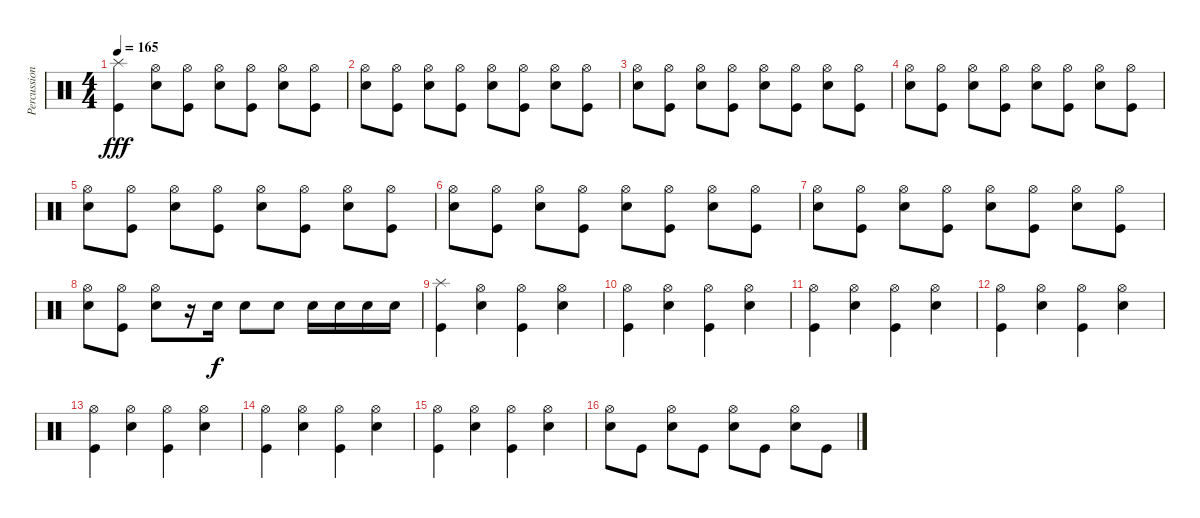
\track ("Percussion" "Percussion") {instrument percussion}
\staff {score}
\articulation defaults
\ts (4 4)
\tempo 165
\clef neutral
\ks c
("Splash (hit)" "Kick (hit)").4{dy fff} ("Hi-Hat (open)" "Snare (hit) 2").8 ("Hi-Hat (open)" "Kick (hit)").8 ("Hi-Hat (open)" "Snare (hit) 2").8 ("Hi-Hat (open)" "Kick (hit)").8 ("Hi-Hat (open)" "Snare (hit) 2").8 ("Hi-Hat (open)" "Kick (hit)").8 |
("Hi-Hat (open)" "Snare (hit) 2").8 ("Hi-Hat (open)" "Kick (hit)").8 ("Hi-Hat (open)" "Snare (hit) 2").8 ("Hi-Hat (open)" "Kick (hit)").8 ("Hi-Hat (open)" "Snare (hit) 2").8 ("Hi-Hat (open)" "Kick (hit)").8 ("Hi-Hat (open)" "Snare (hit) 2").8 ("Hi-Hat (open)" "Kick (hit)").8 |
("Hi-Hat (open)" "Snare (hit) 2").8 ("Hi-Hat (open)" "Kick (hit)").8 ("Hi-Hat (open)" "Snare (hit) 2").8 ("Hi-Hat (open)" "Kick (hit)").8 ("Hi-Hat (open)" "Snare (hit) 2").8 ("Hi-Hat (open)" "Kick (hit)").8 ("Hi-Hat (open)" "Snare (hit) 2").8 ("Hi-Hat (open)" "Kick (hit)").8 |
("Hi-Hat (open)" "Snare (hit) 2").8 ("Hi-Hat (open)" "Kick (hit)").8 ("Hi-Hat (open)" "Snare (hit) 2").8 ("Hi-Hat (open)" "Kick (hit)").8 ("Hi-Hat (open)" "Snare (hit) 2").8 ("Hi-Hat (open)" "Kick (hit)").8 ("Hi-Hat (open)" "Snare (hit) 2").8 ("Hi-Hat (open)" "Kick (hit)").8 |
("Hi-Hat (open)" "Snare (hit) 2").8 ("Hi-Hat (open)" "Kick (hit)").8 ("Hi-Hat (open)" "Snare (hit) 2").8 ("Hi-Hat (open)" "Kick (hit)").8 ("Hi-Hat (open)" "Snare (hit) 2").8 ("Hi-Hat (open)" "Kick (hit)").8 ("Hi-Hat (open)" "Snare (hit) 2").8 ("Hi-Hat (open)" "Kick (hit)").8 |
("Hi-Hat (open)" "Snare (hit) 2").8 ("Hi-Hat (open)" "Kick (hit)").8 ("Hi-Hat (open)" "Snare (hit) 2").8 ("Hi-Hat (open)" "Kick (hit)").8 ("Hi-Hat (open)" "Snare (hit) 2").8 ("Hi-Hat (open)" "Kick (hit)").8 ("Hi-Hat (open)" "Snare (hit) 2").8 ("Hi-Hat (open)" "Kick (hit)").8 |
("Hi-Hat (open)" "Snare (hit) 2").8 ("Hi-Hat (open)" "Kick (hit)").8 ("Hi-Hat (open)" "Snare (hit) 2").8 ("Hi-Hat (open)" "Kick (hit)").8 ("Hi-Hat (open)" "Snare (hit) 2").8 ("Hi-Hat (open)" "Kick (hit)").8 ("Hi-Hat (open)" "Snare (hit) 2").8 ("Hi-Hat (open)" "Kick (hit)").8 |
("Hi-Hat (open)" "Snare (hit) 2").8 ("Hi-Hat (open)" "Kick (hit)").8 ("Hi-Hat (open)" "Snare (hit) 2").8 r.16 "Snare (hit) 2".16{dy f} "Snare (hit) 2".8 "Snare (hit) 2".8 "Snare (hit) 2".16 "Snare (hit) 2".16 "Snare (hit) 2".16 "Snare (hit) 2".16 |
("Splash (hit)" "Kick (hit)").4 ("Hi-Hat (open)" "Snare (hit) 2").4 ("Hi-Hat (open)" "Kick (hit)").4 ("Hi-Hat (open)" "Snare (hit) 2").4 |
("Hi-Hat (open)" "Kick (hit)").4 ("Hi-Hat (open)" "Snare (hit) 2").4 ("Hi-Hat (open)" "Kick (hit)").4 ("Hi-Hat (open)" "Snare (hit) 2").4 |
("Hi-Hat (open)" "Kick (hit)").4 ("Hi-Hat (open)" "Snare (hit) 2").4 ("Hi-Hat (open)" "Kick (hit)").4 ("Hi-Hat (open)" "Snare (hit) 2").4 |
("Hi-Hat (open)" "Kick (hit)").4 ("Hi-Hat (open)" "Snare (hit) 2").4 ("Hi-Hat (open)" "Kick (hit)").4 ("Hi-Hat (open)" "Snare (hit) 2").4 |
("Hi-Hat (open)" "Kick (hit)").4 ("Hi-Hat (open)" "Snare (hit) 2").4 ("Hi-Hat (open)" "Kick (hit)").4 ("Hi-Hat (open)" "Snare (hit) 2").4 |
("Hi-Hat (open)" "Kick (hit)").4 ("Hi-Hat (open)" "Snare (hit) 2").4 ("Hi-Hat (open)" "Kick (hit)").4 ("Hi-Hat (open)" "Snare (hit) 2").4 |
("Hi-Hat (open)" "Kick (hit)").4 ("Hi-Hat (open)" "Snare (hit) 2").4 ("Hi-Hat (open)" "Kick (hit)").4 ("Hi-Hat (open)" "Snare (hit) 2").4 |
("Hi-Hat (open)" "Snare (hit) 2").8 "Kick (hit)".8 ("Hi-Hat (open)" "Snare (hit) 2").8 "Kick (hit)".8 ("Hi-Hat (open)" "Snare (hit) 2").8 "Kick (hit)".8 ("Hi-Hat (open)" "Snare (hit) 2").8 "Kick (hit)".8
